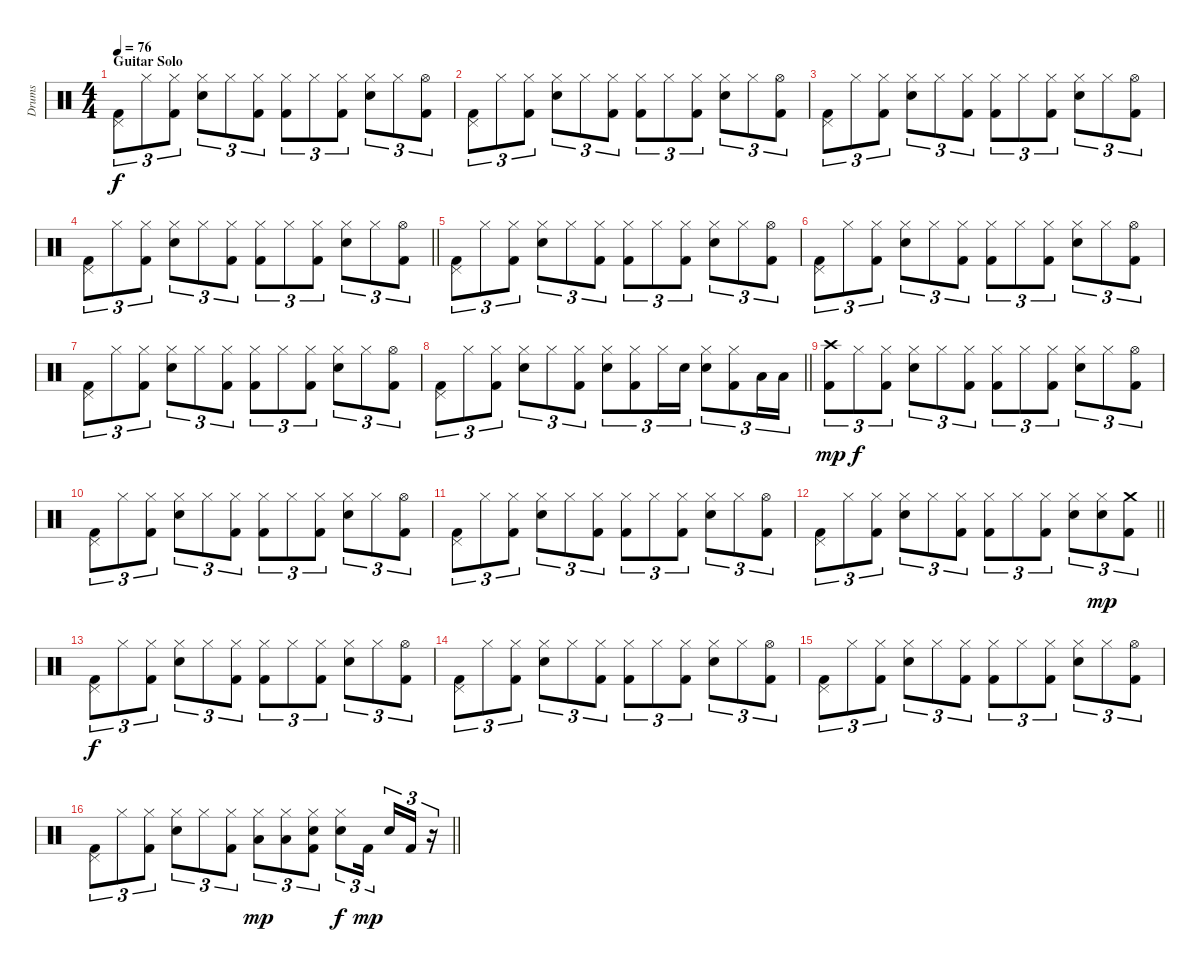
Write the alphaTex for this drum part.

\track ("Drums" "Drums") {instrument percussion}
\staff {score}
\articulation defaults
\ts (4 4)
\section ("" "Guitar Solo")
\tempo 76
\clef neutral
\ks c
("Pedal Hi-Hat (hit)" "Kick (hit) 2").8{tu (3 2) dy f} "Hi-Hat (closed)".8{tu (3 2)} ("Hi-Hat (closed)" "Kick (hit) 2").8{tu (3 2)} ("Hi-Hat (closed)" "Snare (hit) 2").8{tu (3 2)} "Hi-Hat (closed)".8{tu (3 2)} ("Hi-Hat (closed)" "Kick (hit) 2").8{tu (3 2)} ("Hi-Hat (closed)" "Kick (hit) 2").8{tu (3 2)} "Hi-Hat (closed)".8{tu (3 2)} ("Hi-Hat (closed)" "Kick (hit) 2").8{tu (3 2)} ("Hi-Hat (closed)" "Snare (hit) 2").8{tu (3 2)} "Hi-Hat (closed)".8{tu (3 2)} ("Hi-Hat (open)" "Kick (hit) 2").8{tu (3 2)} |
("Pedal Hi-Hat (hit)" "Kick (hit) 2").8{tu (3 2)} "Hi-Hat (closed)".8{tu (3 2)} ("Hi-Hat (closed)" "Kick (hit) 2").8{tu (3 2)} ("Hi-Hat (closed)" "Snare (hit) 2").8{tu (3 2)} "Hi-Hat (closed)".8{tu (3 2)} ("Hi-Hat (closed)" "Kick (hit) 2").8{tu (3 2)} ("Hi-Hat (closed)" "Kick (hit) 2").8{tu (3 2)} "Hi-Hat (closed)".8{tu (3 2)} ("Hi-Hat (closed)" "Kick (hit) 2").8{tu (3 2)} ("Hi-Hat (closed)" "Snare (hit) 2").8{tu (3 2)} "Hi-Hat (closed)".8{tu (3 2)} ("Hi-Hat (open)" "Kick (hit) 2").8{tu (3 2)} |
("Pedal Hi-Hat (hit)" "Kick (hit) 2").8{tu (3 2)} "Hi-Hat (closed)".8{tu (3 2)} ("Hi-Hat (closed)" "Kick (hit) 2").8{tu (3 2)} ("Hi-Hat (closed)" "Snare (hit) 2").8{tu (3 2)} "Hi-Hat (closed)".8{tu (3 2)} ("Hi-Hat (closed)" "Kick (hit) 2").8{tu (3 2)} ("Hi-Hat (closed)" "Kick (hit) 2").8{tu (3 2)} "Hi-Hat (closed)".8{tu (3 2)} ("Hi-Hat (closed)" "Kick (hit) 2").8{tu (3 2)} ("Hi-Hat (closed)" "Snare (hit) 2").8{tu (3 2)} "Hi-Hat (closed)".8{tu (3 2)} ("Hi-Hat (open)" "Kick (hit) 2").8{tu (3 2)} |
\barLineRight lightlight
("Pedal Hi-Hat (hit)" "Kick (hit) 2").8{tu (3 2)} "Hi-Hat (closed)".8{tu (3 2)} ("Hi-Hat (closed)" "Kick (hit) 2").8{tu (3 2)} ("Hi-Hat (closed)" "Snare (hit) 2").8{tu (3 2)} "Hi-Hat (closed)".8{tu (3 2)} ("Hi-Hat (closed)" "Kick (hit) 2").8{tu (3 2)} ("Hi-Hat (closed)" "Kick (hit) 2").8{tu (3 2)} "Hi-Hat (closed)".8{tu (3 2)} ("Hi-Hat (closed)" "Kick (hit) 2").8{tu (3 2)} ("Hi-Hat (closed)" "Snare (hit) 2").8{tu (3 2)} "Hi-Hat (closed)".8{tu (3 2)} ("Hi-Hat (open)" "Kick (hit) 2").8{tu (3 2)} |
("Pedal Hi-Hat (hit)" "Kick (hit) 2").8{tu (3 2)} "Hi-Hat (closed)".8{tu (3 2)} ("Hi-Hat (closed)" "Kick (hit) 2").8{tu (3 2)} ("Hi-Hat (closed)" "Snare (hit) 2").8{tu (3 2)} "Hi-Hat (closed)".8{tu (3 2)} ("Hi-Hat (closed)" "Kick (hit) 2").8{tu (3 2)} ("Hi-Hat (closed)" "Kick (hit) 2").8{tu (3 2)} "Hi-Hat (closed)".8{tu (3 2)} ("Hi-Hat (closed)" "Kick (hit) 2").8{tu (3 2)} ("Hi-Hat (closed)" "Snare (hit) 2").8{tu (3 2)} "Hi-Hat (closed)".8{tu (3 2)} ("Hi-Hat (open)" "Kick (hit) 2").8{tu (3 2)} |
("Pedal Hi-Hat (hit)" "Kick (hit) 2").8{tu (3 2)} "Hi-Hat (closed)".8{tu (3 2)} ("Hi-Hat (closed)" "Kick (hit) 2").8{tu (3 2)} ("Hi-Hat (closed)" "Snare (hit) 2").8{tu (3 2)} "Hi-Hat (closed)".8{tu (3 2)} ("Hi-Hat (closed)" "Kick (hit) 2").8{tu (3 2)} ("Hi-Hat (closed)" "Kick (hit) 2").8{tu (3 2)} "Hi-Hat (closed)".8{tu (3 2)} ("Hi-Hat (closed)" "Kick (hit) 2").8{tu (3 2)} ("Hi-Hat (closed)" "Snare (hit) 2").8{tu (3 2)} "Hi-Hat (closed)".8{tu (3 2)} ("Hi-Hat (open)" "Kick (hit) 2").8{tu (3 2)} |
("Pedal Hi-Hat (hit)" "Kick (hit) 2").8{tu (3 2)} "Hi-Hat (closed)".8{tu (3 2)} ("Hi-Hat (closed)" "Kick (hit) 2").8{tu (3 2)} ("Hi-Hat (closed)" "Snare (hit) 2").8{tu (3 2)} "Hi-Hat (closed)".8{tu (3 2)} ("Hi-Hat (closed)" "Kick (hit) 2").8{tu (3 2)} ("Hi-Hat (closed)" "Kick (hit) 2").8{tu (3 2)} "Hi-Hat (closed)".8{tu (3 2)} ("Hi-Hat (closed)" "Kick (hit) 2").8{tu (3 2)} ("Hi-Hat (closed)" "Snare (hit) 2").8{tu (3 2)} "Hi-Hat (closed)".8{tu (3 2)} ("Hi-Hat (open)" "Kick (hit) 2").8{tu (3 2)} |
\barLineRight lightlight
("Pedal Hi-Hat (hit)" "Kick (hit) 2").8{tu (3 2)} "Hi-Hat (closed)".8{tu (3 2)} ("Hi-Hat (closed)" "Kick (hit) 2").8{tu (3 2)} ("Hi-Hat (closed)" "Snare (hit) 2").8{tu (3 2)} "Hi-Hat (closed)".8{tu (3 2)} ("Hi-Hat (closed)" "Kick (hit) 2").8{tu (3 2)} ("Hi-Hat (closed)" "Snare (hit) 2").8{tu (3 2)} ("Hi-Hat (closed)" "Kick (hit) 2").8{tu (3 2)} "Hi-Hat (closed)".16{tu (3 2)} "Snare (hit) 2".16{tu (3 2)} ("Hi-Hat (closed)" "Snare (hit) 2").8{tu (3 2)} ("Hi-Hat (closed)" "Kick (hit) 2").8{tu (3 2)} "Low Tom (hit)".16{tu (3 2)} "Low Tom (hit)".16{tu (3 2)} |
("Crash high (hit)" "Kick (hit) 2").8{tu (3 2) dy mp} "Hi-Hat (closed)".8{tu (3 2) dy f} ("Hi-Hat (closed)" "Kick (hit) 2").8{tu (3 2)} ("Hi-Hat (closed)" "Snare (hit) 2").8{tu (3 2)} "Hi-Hat (closed)".8{tu (3 2)} ("Hi-Hat (closed)" "Kick (hit) 2").8{tu (3 2)} ("Hi-Hat (closed)" "Kick (hit) 2").8{tu (3 2)} "Hi-Hat (closed)".8{tu (3 2)} ("Hi-Hat (closed)" "Kick (hit) 2").8{tu (3 2)} ("Hi-Hat (closed)" "Snare (hit) 2").8{tu (3 2)} "Hi-Hat (closed)".8{tu (3 2)} ("Hi-Hat (open)" "Kick (hit) 2").8{tu (3 2)} |
("Pedal Hi-Hat (hit)" "Kick (hit) 2").8{tu (3 2)} "Hi-Hat (closed)".8{tu (3 2)} ("Hi-Hat (closed)" "Kick (hit) 2").8{tu (3 2)} ("Hi-Hat (closed)" "Snare (hit) 2").8{tu (3 2)} "Hi-Hat (closed)".8{tu (3 2)} ("Hi-Hat (closed)" "Kick (hit) 2").8{tu (3 2)} ("Hi-Hat (closed)" "Kick (hit) 2").8{tu (3 2)} "Hi-Hat (closed)".8{tu (3 2)} ("Hi-Hat (closed)" "Kick (hit) 2").8{tu (3 2)} ("Hi-Hat (closed)" "Snare (hit) 2").8{tu (3 2)} "Hi-Hat (closed)".8{tu (3 2)} ("Hi-Hat (open)" "Kick (hit) 2").8{tu (3 2)} |
("Pedal Hi-Hat (hit)" "Kick (hit) 2").8{tu (3 2)} "Hi-Hat (closed)".8{tu (3 2)} ("Hi-Hat (closed)" "Kick (hit) 2").8{tu (3 2)} ("Hi-Hat (closed)" "Snare (hit) 2").8{tu (3 2)} "Hi-Hat (closed)".8{tu (3 2)} ("Hi-Hat (closed)" "Kick (hit) 2").8{tu (3 2)} ("Hi-Hat (closed)" "Kick (hit) 2").8{tu (3 2)} "Hi-Hat (closed)".8{tu (3 2)} ("Hi-Hat (closed)" "Kick (hit) 2").8{tu (3 2)} ("Hi-Hat (closed)" "Snare (hit) 2").8{tu (3 2)} "Hi-Hat (closed)".8{tu (3 2)} ("Hi-Hat (open)" "Kick (hit) 2").8{tu (3 2)} |
\barLineRight lightlight
("Pedal Hi-Hat (hit)" "Kick (hit) 2").8{tu (3 2)} "Hi-Hat (closed)".8{tu (3 2)} ("Hi-Hat (closed)" "Kick (hit) 2").8{tu (3 2)} ("Hi-Hat (closed)" "Snare (hit) 2").8{tu (3 2)} "Hi-Hat (closed)".8{tu (3 2)} ("Hi-Hat (closed)" "Kick (hit) 2").8{tu (3 2)} ("Hi-Hat (closed)" "Kick (hit) 2").8{tu (3 2)} "Hi-Hat (closed)".8{tu (3 2)} ("Hi-Hat (closed)" "Kick (hit) 2").8{tu (3 2)} ("Hi-Hat (closed)" "Snare (hit) 2").8{tu (3 2)} ("Hi-Hat (closed)" "Snare (hit) 2").8{tu (3 2) dy mp} ("Crash medium (hit)" "Kick (hit) 2").8{tu (3 2)} |
("Pedal Hi-Hat (hit)" "Kick (hit) 2").8{tu (3 2) dy f} "Hi-Hat (closed)".8{tu (3 2)} ("Hi-Hat (closed)" "Kick (hit) 2").8{tu (3 2)} ("Hi-Hat (closed)" "Snare (hit) 2").8{tu (3 2)} "Hi-Hat (closed)".8{tu (3 2)} ("Hi-Hat (closed)" "Kick (hit) 2").8{tu (3 2)} ("Hi-Hat (closed)" "Kick (hit) 2").8{tu (3 2)} "Hi-Hat (closed)".8{tu (3 2)} ("Hi-Hat (closed)" "Kick (hit) 2").8{tu (3 2)} ("Hi-Hat (closed)" "Snare (hit) 2").8{tu (3 2)} "Hi-Hat (closed)".8{tu (3 2)} ("Hi-Hat (open)" "Kick (hit) 2").8{tu (3 2)} |
("Pedal Hi-Hat (hit)" "Kick (hit) 2").8{tu (3 2)} "Hi-Hat (closed)".8{tu (3 2)} ("Hi-Hat (closed)" "Kick (hit) 2").8{tu (3 2)} ("Hi-Hat (closed)" "Snare (hit) 2").8{tu (3 2)} "Hi-Hat (closed)".8{tu (3 2)} ("Hi-Hat (closed)" "Kick (hit) 2").8{tu (3 2)} ("Hi-Hat (closed)" "Kick (hit) 2").8{tu (3 2)} "Hi-Hat (closed)".8{tu (3 2)} ("Hi-Hat (closed)" "Kick (hit) 2").8{tu (3 2)} ("Hi-Hat (closed)" "Snare (hit) 2").8{tu (3 2)} "Hi-Hat (closed)".8{tu (3 2)} ("Hi-Hat (open)" "Kick (hit) 2").8{tu (3 2)} |
("Pedal Hi-Hat (hit)" "Kick (hit) 2").8{tu (3 2)} "Hi-Hat (closed)".8{tu (3 2)} ("Hi-Hat (closed)" "Kick (hit) 2").8{tu (3 2)} ("Hi-Hat (closed)" "Snare (hit) 2").8{tu (3 2)} "Hi-Hat (closed)".8{tu (3 2)} ("Hi-Hat (closed)" "Kick (hit) 2").8{tu (3 2)} ("Hi-Hat (closed)" "Kick (hit) 2").8{tu (3 2)} "Hi-Hat (closed)".8{tu (3 2)} ("Hi-Hat (closed)" "Kick (hit) 2").8{tu (3 2)} ("Hi-Hat (closed)" "Snare (hit) 2").8{tu (3 2)} "Hi-Hat (closed)".8{tu (3 2)} ("Hi-Hat (open)" "Kick (hit) 2").8{tu (3 2)} |
\barLineRight lightlight
("Pedal Hi-Hat (hit)" "Kick (hit) 2").8{tu (3 2)} "Hi-Hat (closed)".8{tu (3 2)} ("Hi-Hat (closed)" "Kick (hit) 2").8{tu (3 2)} ("Hi-Hat (closed)" "Snare (hit) 2").8{tu (3 2)} "Hi-Hat (closed)".8{tu (3 2)} ("Hi-Hat (closed)" "Kick (hit) 2").8{tu (3 2)} ("Hi-Hat (closed)" "Low Tom (hit)").8{tu (3 2) dy mp} ("Hi-Hat (closed)" "Low Tom (hit)").8{tu (3 2)} ("Hi-Hat (closed)" "Snare (hit) 2" "Kick (hit) 2").8{tu (3 2)} ("Hi-Hat (closed)" "Snare (hit) 2").8{tu (3 2) dy f} "Kick (hit) 2".16{tu (3 2) dy mp beam splitsecondary} "Snare (hit) 2".16{tu (3 2)} "Kick (hit) 2".16{tu (3 2)} r.16{tu (3 2)}
